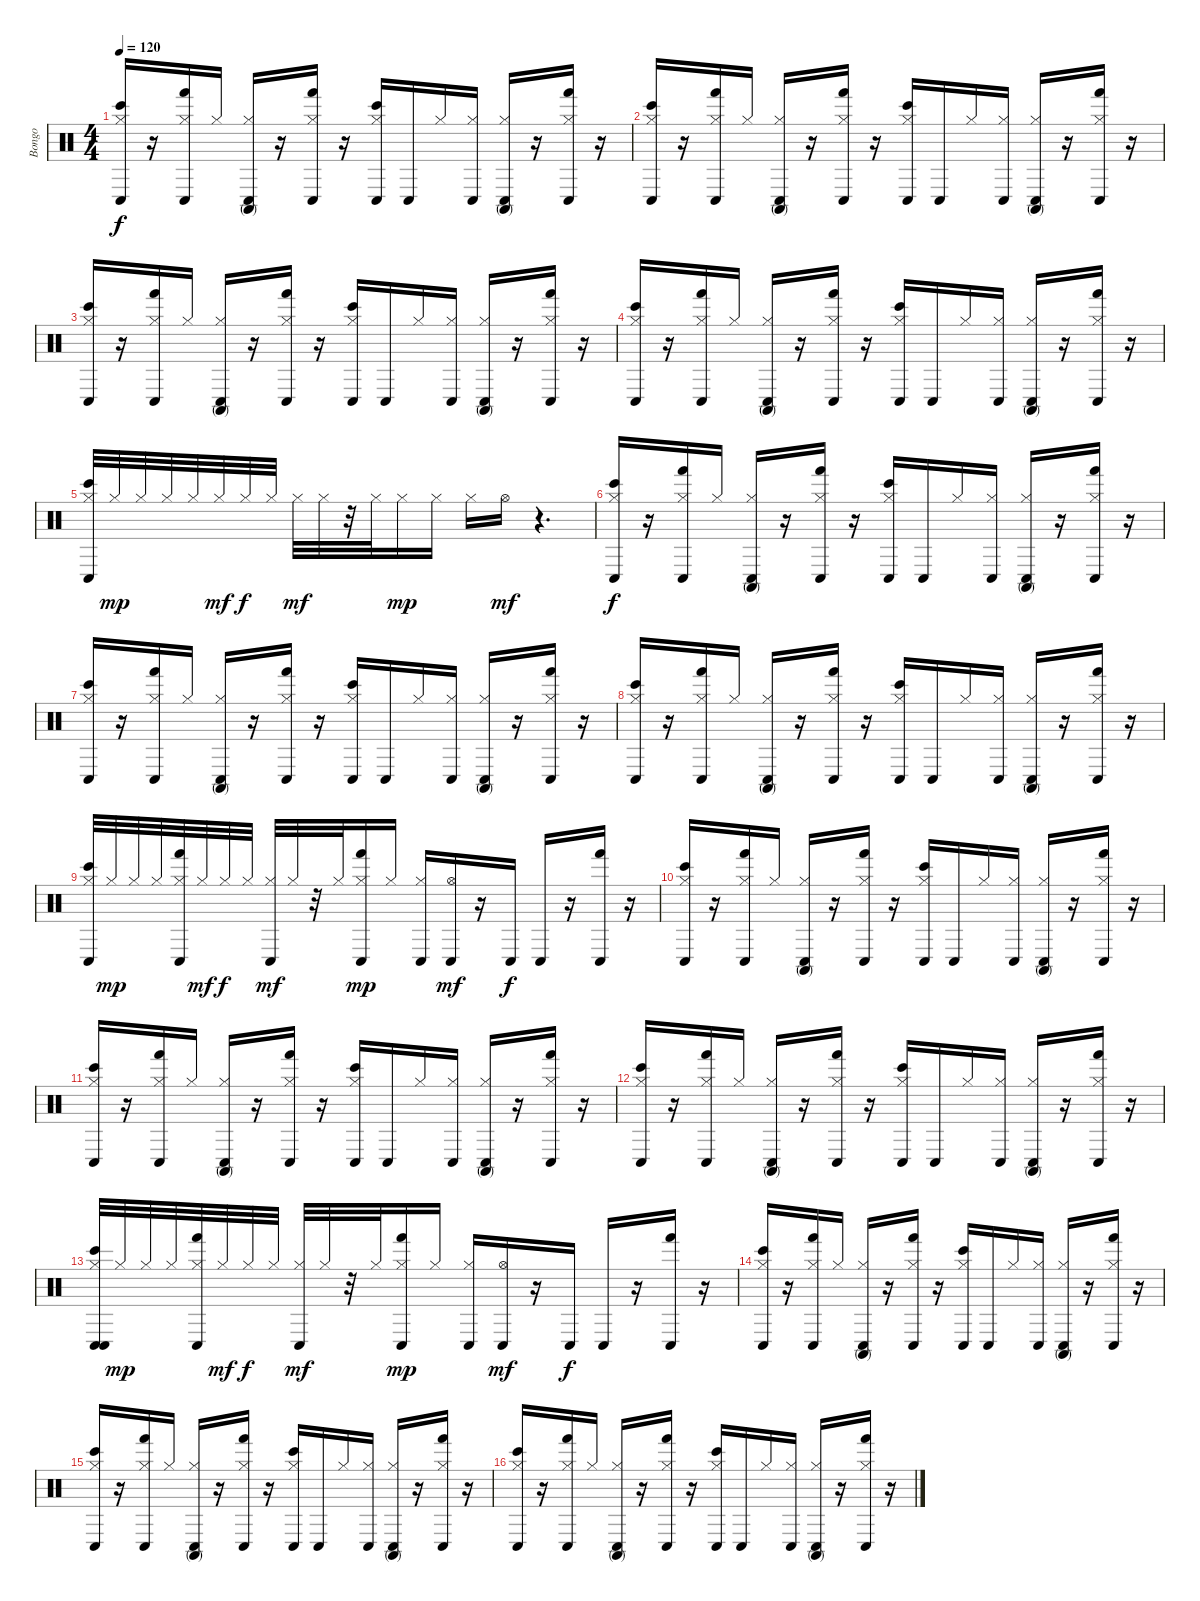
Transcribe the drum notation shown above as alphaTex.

\track ("Bongo" "Bongo") {instrument percussion}
\staff {score}
\articulation defaults
\ts (4 4)
\tempo 120
\clef neutral
\ks c
("Hi-Hat (closed)" "Bongo High (hit)" "Conga low (hit)").16{dy f} r.16 ("Hi-Hat (closed)" "Hand (hit)" "Conga low (hit)").16 "Hi-Hat (closed)".16 ("Hi-Hat (closed)" "Conga high (mute)" "Conga low (hit)").16 r.16 ("Hi-Hat (closed)" "Hand (hit)" "Conga low (hit)").16 r.16 ("Hi-Hat (closed)" "Bongo High (hit)" "Conga low (hit)").16 "Conga low (hit)".16 "Hi-Hat (closed)".16 ("Hi-Hat (closed)" "Conga low (hit)").16 ("Hi-Hat (closed)" "Conga high (mute)" "Conga low (hit)").16 r.16 ("Hi-Hat (closed)" "Conga low (hit)" "Hand (hit)").16 r.16 |
("Hi-Hat (closed)" "Bongo High (hit)" "Conga low (hit)").16 r.16 ("Hi-Hat (closed)" "Hand (hit)" "Conga low (hit)").16 "Hi-Hat (closed)".16 ("Hi-Hat (closed)" "Conga high (mute)" "Conga low (hit)").16 r.16 ("Hi-Hat (closed)" "Hand (hit)" "Conga low (hit)").16 r.16 ("Hi-Hat (closed)" "Bongo High (hit)" "Conga low (hit)").16 "Conga low (hit)".16 "Hi-Hat (closed)".16 ("Hi-Hat (closed)" "Conga low (hit)").16 ("Hi-Hat (closed)" "Conga high (mute)" "Conga low (hit)").16 r.16 ("Hi-Hat (closed)" "Conga low (hit)" "Hand (hit)").16 r.16 |
("Hi-Hat (closed)" "Bongo High (hit)" "Conga low (hit)").16 r.16 ("Hi-Hat (closed)" "Hand (hit)" "Conga low (hit)").16 "Hi-Hat (closed)".16 ("Hi-Hat (closed)" "Conga high (mute)" "Conga low (hit)").16 r.16 ("Hi-Hat (closed)" "Hand (hit)" "Conga low (hit)").16 r.16 ("Hi-Hat (closed)" "Bongo High (hit)" "Conga low (hit)").16 "Conga low (hit)".16 "Hi-Hat (closed)".16 ("Hi-Hat (closed)" "Conga low (hit)").16 ("Hi-Hat (closed)" "Conga high (mute)" "Conga low (hit)").16 r.16 ("Hi-Hat (closed)" "Conga low (hit)" "Hand (hit)").16 r.16 |
("Hi-Hat (closed)" "Bongo High (hit)" "Conga low (hit)").16 r.16 ("Hi-Hat (closed)" "Hand (hit)" "Conga low (hit)").16 "Hi-Hat (closed)".16 ("Hi-Hat (closed)" "Conga high (mute)" "Conga low (hit)").16 r.16 ("Hi-Hat (closed)" "Hand (hit)" "Conga low (hit)").16 r.16 ("Hi-Hat (closed)" "Bongo High (hit)" "Conga low (hit)").16 "Conga low (hit)".16 "Hi-Hat (closed)".16 ("Hi-Hat (closed)" "Conga low (hit)").16 ("Hi-Hat (closed)" "Conga high (mute)" "Conga low (hit)").16 r.16 ("Hi-Hat (closed)" "Conga low (hit)" "Hand (hit)").16 r.16 |
("Hi-Hat (closed)" "Bongo High (hit)" "Conga low (hit)").32 "Hi-Hat (closed)".32{dy mp} "Hi-Hat (closed)".32 "Hi-Hat (closed)".32 "Hi-Hat (closed)".32 "Hi-Hat (closed)".32{dy mf} "Hi-Hat (closed)".32{dy f} "Hi-Hat (closed)".32 "Hi-Hat (closed)".32{dy mf} "Hi-Hat (closed)".32 r.32 "Hi-Hat (closed)".32 "Hi-Hat (closed)".16{dy mp} "Hi-Hat (closed)".16 "Hi-Hat (closed)".16 "Hi-Hat (open)".16{dy mf} r.4{d} |
("Hi-Hat (closed)" "Bongo High (hit)" "Conga low (hit)").16{dy f} r.16 ("Hi-Hat (closed)" "Hand (hit)" "Conga low (hit)").16 "Hi-Hat (closed)".16 ("Hi-Hat (closed)" "Conga high (mute)" "Conga low (hit)").16 r.16 ("Hi-Hat (closed)" "Hand (hit)" "Conga low (hit)").16 r.16 ("Hi-Hat (closed)" "Bongo High (hit)" "Conga low (hit)").16 "Conga low (hit)".16 "Hi-Hat (closed)".16 ("Hi-Hat (closed)" "Conga low (hit)").16 ("Hi-Hat (closed)" "Conga high (mute)" "Conga low (hit)").16 r.16 ("Hi-Hat (closed)" "Conga low (hit)" "Hand (hit)").16 r.16 |
("Hi-Hat (closed)" "Bongo High (hit)" "Conga low (hit)").16 r.16 ("Hi-Hat (closed)" "Hand (hit)" "Conga low (hit)").16 "Hi-Hat (closed)".16 ("Hi-Hat (closed)" "Conga high (mute)" "Conga low (hit)").16 r.16 ("Hi-Hat (closed)" "Hand (hit)" "Conga low (hit)").16 r.16 ("Hi-Hat (closed)" "Bongo High (hit)" "Conga low (hit)").16 "Conga low (hit)".16 "Hi-Hat (closed)".16 ("Hi-Hat (closed)" "Conga low (hit)").16 ("Hi-Hat (closed)" "Conga high (mute)" "Conga low (hit)").16 r.16 ("Hi-Hat (closed)" "Conga low (hit)" "Hand (hit)").16 r.16 |
("Hi-Hat (closed)" "Bongo High (hit)" "Conga low (hit)").16 r.16 ("Hi-Hat (closed)" "Hand (hit)" "Conga low (hit)").16 "Hi-Hat (closed)".16 ("Hi-Hat (closed)" "Conga high (mute)" "Conga low (hit)").16 r.16 ("Hi-Hat (closed)" "Hand (hit)" "Conga low (hit)").16 r.16 ("Hi-Hat (closed)" "Bongo High (hit)" "Conga low (hit)").16 "Conga low (hit)".16 "Hi-Hat (closed)".16 ("Hi-Hat (closed)" "Conga low (hit)").16 ("Hi-Hat (closed)" "Conga high (mute)" "Conga low (hit)").16 r.16 ("Hi-Hat (closed)" "Conga low (hit)" "Hand (hit)").16 r.16 |
("Conga low (hit)" "Hi-Hat (closed)" "Bongo High (hit)").32 "Hi-Hat (closed)".32{dy mp} "Hi-Hat (closed)".32 "Hi-Hat (closed)".32 ("Hand (hit)" "Conga low (hit)" "Hi-Hat (closed)").32 "Hi-Hat (closed)".32{dy mf} "Hi-Hat (closed)".32{dy f} "Hi-Hat (closed)".32 ("Conga low (hit)" "Hi-Hat (closed)").32{dy mf} "Hi-Hat (closed)".32 r.32 "Hi-Hat (closed)".32 ("Hand (hit)" "Conga low (hit)" "Hi-Hat (closed)").16{dy mp} "Hi-Hat (closed)".16 ("Conga low (hit)" "Hi-Hat (closed)").16 ("Conga low (hit)" "Hi-Hat (open)").16{dy mf} r.16 "Conga low (hit)".16{dy f} "Conga low (hit)".16 r.16 ("Conga low (hit)" "Hand (hit)").16 r.16 |
("Hi-Hat (closed)" "Bongo High (hit)" "Conga low (hit)").16 r.16 ("Hi-Hat (closed)" "Hand (hit)" "Conga low (hit)").16 "Hi-Hat (closed)".16 ("Hi-Hat (closed)" "Conga high (mute)" "Conga low (hit)").16 r.16 ("Hi-Hat (closed)" "Hand (hit)" "Conga low (hit)").16 r.16 ("Hi-Hat (closed)" "Bongo High (hit)" "Conga low (hit)").16 "Conga low (hit)".16 "Hi-Hat (closed)".16 ("Hi-Hat (closed)" "Conga low (hit)").16 ("Hi-Hat (closed)" "Conga high (mute)" "Conga low (hit)").16 r.16 ("Hi-Hat (closed)" "Conga low (hit)" "Hand (hit)").16 r.16 |
("Hi-Hat (closed)" "Bongo High (hit)" "Conga low (hit)").16 r.16 ("Hi-Hat (closed)" "Hand (hit)" "Conga low (hit)").16 "Hi-Hat (closed)".16 ("Hi-Hat (closed)" "Conga high (mute)" "Conga low (hit)").16 r.16 ("Hi-Hat (closed)" "Hand (hit)" "Conga low (hit)").16 r.16 ("Hi-Hat (closed)" "Bongo High (hit)" "Conga low (hit)").16 "Conga low (hit)".16 "Hi-Hat (closed)".16 ("Hi-Hat (closed)" "Conga low (hit)").16 ("Hi-Hat (closed)" "Conga high (mute)" "Conga low (hit)").16 r.16 ("Hi-Hat (closed)" "Conga low (hit)" "Hand (hit)").16 r.16 |
("Hi-Hat (closed)" "Bongo High (hit)" "Conga low (hit)").16 r.16 ("Hi-Hat (closed)" "Hand (hit)" "Conga low (hit)").16 "Hi-Hat (closed)".16 ("Hi-Hat (closed)" "Conga high (mute)" "Conga low (hit)").16 r.16 ("Hi-Hat (closed)" "Hand (hit)" "Conga low (hit)").16 r.16 ("Hi-Hat (closed)" "Bongo High (hit)" "Conga low (hit)").16 "Conga low (hit)".16 "Hi-Hat (closed)".16 ("Hi-Hat (closed)" "Conga low (hit)").16 ("Hi-Hat (closed)" "Conga high (mute)" "Conga low (hit)").16 r.16 ("Hi-Hat (closed)" "Conga low (hit)" "Hand (hit)").16 r.16 |
("Conga low (hit)" "Hi-Hat (closed)" "Bongo High (hit)" "Conga low (hit)").32 "Hi-Hat (closed)".32{dy mp} "Hi-Hat (closed)".32 "Hi-Hat (closed)".32 ("Hand (hit)" "Conga low (hit)" "Hi-Hat (closed)").32 "Hi-Hat (closed)".32{dy mf} "Hi-Hat (closed)".32{dy f} "Hi-Hat (closed)".32 ("Conga low (hit)" "Hi-Hat (closed)").32{dy mf} "Hi-Hat (closed)".32 r.32 "Hi-Hat (closed)".32 ("Hand (hit)" "Conga low (hit)" "Hi-Hat (closed)").16{dy mp} "Hi-Hat (closed)".16 ("Conga low (hit)" "Hi-Hat (closed)").16 ("Conga low (hit)" "Hi-Hat (open)").16{dy mf} r.16 "Conga low (hit)".16{dy f} "Conga low (hit)".16 r.16 ("Conga low (hit)" "Hand (hit)").16 r.16 |
("Hi-Hat (closed)" "Bongo High (hit)" "Conga low (hit)").16 r.16 ("Hi-Hat (closed)" "Hand (hit)" "Conga low (hit)").16 "Hi-Hat (closed)".16 ("Hi-Hat (closed)" "Conga high (mute)" "Conga low (hit)").16 r.16 ("Hi-Hat (closed)" "Hand (hit)" "Conga low (hit)").16 r.16 ("Hi-Hat (closed)" "Bongo High (hit)" "Conga low (hit)").16 "Conga low (hit)".16 "Hi-Hat (closed)".16 ("Hi-Hat (closed)" "Conga low (hit)").16 ("Hi-Hat (closed)" "Conga high (mute)" "Conga low (hit)").16 r.16 ("Hi-Hat (closed)" "Conga low (hit)" "Hand (hit)").16 r.16 |
("Hi-Hat (closed)" "Bongo High (hit)" "Conga low (hit)").16 r.16 ("Hi-Hat (closed)" "Hand (hit)" "Conga low (hit)").16 "Hi-Hat (closed)".16 ("Hi-Hat (closed)" "Conga high (mute)" "Conga low (hit)").16 r.16 ("Hi-Hat (closed)" "Hand (hit)" "Conga low (hit)").16 r.16 ("Hi-Hat (closed)" "Bongo High (hit)" "Conga low (hit)").16 "Conga low (hit)".16 "Hi-Hat (closed)".16 ("Hi-Hat (closed)" "Conga low (hit)").16 ("Hi-Hat (closed)" "Conga high (mute)" "Conga low (hit)").16 r.16 ("Hi-Hat (closed)" "Conga low (hit)" "Hand (hit)").16 r.16 |
("Hi-Hat (closed)" "Bongo High (hit)" "Conga low (hit)").16 r.16 ("Hi-Hat (closed)" "Hand (hit)" "Conga low (hit)").16 "Hi-Hat (closed)".16 ("Hi-Hat (closed)" "Conga high (mute)" "Conga low (hit)").16 r.16 ("Hi-Hat (closed)" "Hand (hit)" "Conga low (hit)").16 r.16 ("Hi-Hat (closed)" "Bongo High (hit)" "Conga low (hit)").16 "Conga low (hit)".16 "Hi-Hat (closed)".16 ("Hi-Hat (closed)" "Conga low (hit)").16 ("Hi-Hat (closed)" "Conga high (mute)" "Conga low (hit)").16 r.16 ("Hi-Hat (closed)" "Conga low (hit)" "Hand (hit)").16 r.16
